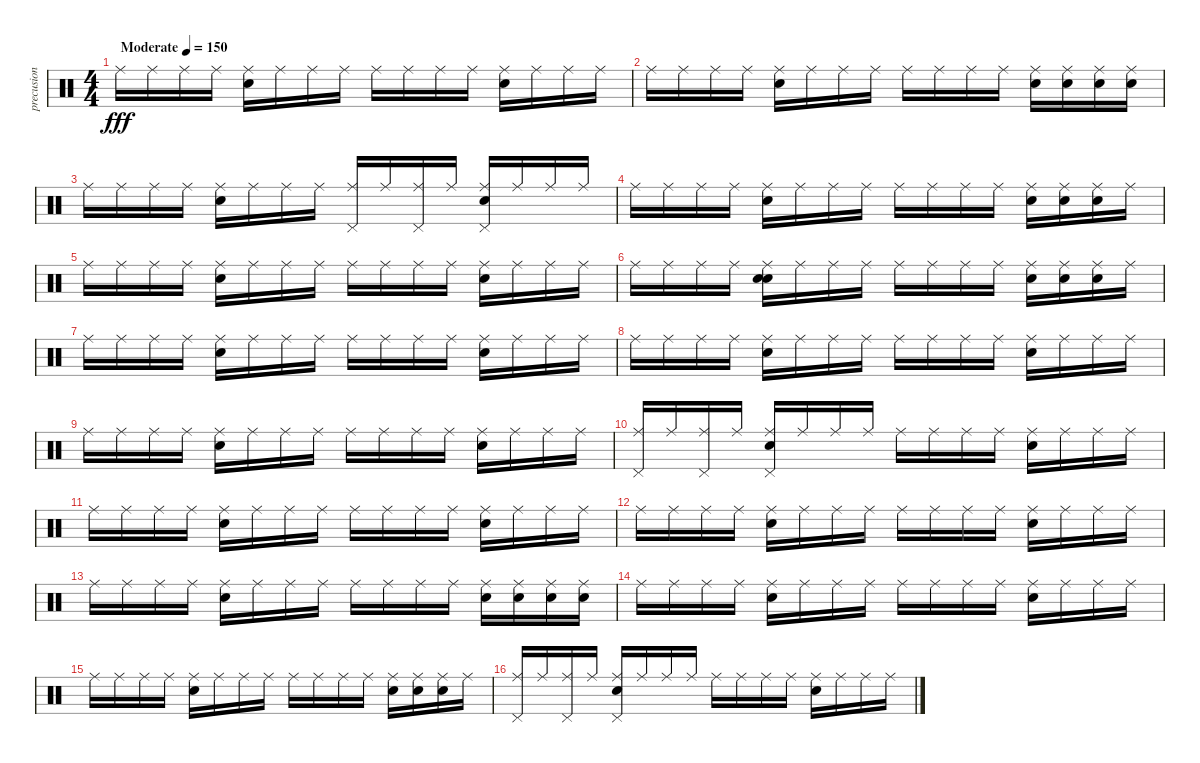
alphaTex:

\track ("precusion" "precusion") {instrument percussion}
\staff {score}
\articulation defaults
\ts (4 4)
\tempo (150 "Moderate")
\clef neutral
\ks c "Ride (middle)".16{dy fff} "Ride (middle)".16 "Ride (middle)".16 "Ride (middle)".16
("Ride (middle)" "Hand Clap (hit)").16 "Ride (middle)".16 "Ride (middle)".16 "Ride (middle)".16 "Ride (middle)".16 "Ride (middle)".16 "Ride (middle)".16 "Ride (middle)".16 ("Ride (middle)" "Hand Clap (hit)").16 "Ride (middle)".16 "Ride (middle)".16 "Ride (middle)".16 |
"Ride (middle)".16 "Ride (middle)".16 "Ride (middle)".16 "Ride (middle)".16 ("Ride (middle)" "Hand Clap (hit)").16 "Ride (middle)".16 "Ride (middle)".16 "Ride (middle)".16 "Ride (middle)".16 "Ride (middle)".16 "Ride (middle)".16 "Ride (middle)".16 ("Ride (middle)" "Hand Clap (hit)").16 ("Hand Clap (hit)" "Ride (middle)").16 ("Hand Clap (hit)" "Ride (middle)").16 ("Hand Clap (hit)" "Ride (middle)").16 |
"Ride (middle)".16 "Ride (middle)".16 "Ride (middle)".16 "Ride (middle)".16 ("Ride (middle)" "Hand Clap (hit)").16 "Ride (middle)".16 "Ride (middle)".16 "Ride (middle)".16 ("Pedal Hi-Hat (hit)" "Ride (middle)").16 "Ride (middle)".16 ("Pedal Hi-Hat (hit)" "Ride (middle)").16 "Ride (middle)".16 ("Pedal Hi-Hat (hit)" "Ride (middle)" "Hand Clap (hit)").16 "Ride (middle)".16 "Ride (middle)".16 "Ride (middle)".16 |
"Ride (middle)".16 "Ride (middle)".16 "Ride (middle)".16 "Ride (middle)".16 ("Ride (middle)" "Hand Clap (hit)").16 "Ride (middle)".16 "Ride (middle)".16 "Ride (middle)".16 "Ride (middle)".16 "Ride (middle)".16 "Ride (middle)".16 "Ride (middle)".16 ("Ride (middle)" "Hand Clap (hit)").16 ("Ride (middle)" "Hand Clap (hit)").16 ("Ride (middle)" "Hand Clap (hit)").16 "Ride (middle)".16 |
"Ride (middle)".16 "Ride (middle)".16 "Ride (middle)".16 "Ride (middle)".16 ("Ride (middle)" "Hand Clap (hit)").16 "Ride (middle)".16 "Ride (middle)".16 "Ride (middle)".16 "Ride (middle)".16 "Ride (middle)".16 "Ride (middle)".16 "Ride (middle)".16 ("Ride (middle)" "Hand Clap (hit)").16 "Ride (middle)".16 "Ride (middle)".16 "Ride (middle)".16 |
"Ride (middle)".16 "Ride (middle)".16 "Ride (middle)".16 "Ride (middle)".16 ("Ride (middle)" "Hand Clap (hit)" "Snare (hit) 2").16 "Ride (middle)".16 "Ride (middle)".16 "Ride (middle)".16 "Ride (middle)".16 "Ride (middle)".16 "Ride (middle)".16 "Ride (middle)".16 ("Ride (middle)" "Hand Clap (hit)").16 ("Ride (middle)" "Hand Clap (hit)").16 ("Ride (middle)" "Hand Clap (hit)").16 "Ride (middle)".16 |
"Ride (middle)".16 "Ride (middle)".16 "Ride (middle)".16 "Ride (middle)".16 ("Ride (middle)" "Hand Clap (hit)").16 "Ride (middle)".16 "Ride (middle)".16 "Ride (middle)".16 "Ride (middle)".16 "Ride (middle)".16 "Ride (middle)".16 "Ride (middle)".16 ("Ride (middle)" "Hand Clap (hit)").16 "Ride (middle)".16 "Ride (middle)".16 "Ride (middle)".16 |
"Ride (middle)".16 "Ride (middle)".16 "Ride (middle)".16 "Ride (middle)".16 ("Ride (middle)" "Hand Clap (hit)").16 "Ride (middle)".16 "Ride (middle)".16 "Ride (middle)".16 "Ride (middle)".16 "Ride (middle)".16 "Ride (middle)".16 "Ride (middle)".16 ("Ride (middle)" "Hand Clap (hit)").16 "Ride (middle)".16 "Ride (middle)".16 "Ride (middle)".16 |
"Ride (middle)".16 "Ride (middle)".16 "Ride (middle)".16 "Ride (middle)".16 ("Ride (middle)" "Hand Clap (hit)").16 "Ride (middle)".16 "Ride (middle)".16 "Ride (middle)".16 "Ride (middle)".16 "Ride (middle)".16 "Ride (middle)".16 "Ride (middle)".16 ("Ride (middle)" "Hand Clap (hit)").16 "Ride (middle)".16 "Ride (middle)".16 "Ride (middle)".16 |
("Ride (middle)" "Pedal Hi-Hat (hit)").16 "Ride (middle)".16 ("Ride (middle)" "Pedal Hi-Hat (hit)").16 "Ride (middle)".16 ("Pedal Hi-Hat (hit)" "Hand Clap (hit)" "Ride (middle)").16 "Ride (middle)".16 "Ride (middle)".16 "Ride (middle)".16 "Ride (middle)".16 "Ride (middle)".16 "Ride (middle)".16 "Ride (middle)".16 ("Ride (middle)" "Hand Clap (hit)").16 "Ride (middle)".16 "Ride (middle)".16 "Ride (middle)".16 |
"Ride (middle)".16 "Ride (middle)".16 "Ride (middle)".16 "Ride (middle)".16 ("Ride (middle)" "Hand Clap (hit)").16 "Ride (middle)".16 "Ride (middle)".16 "Ride (middle)".16 "Ride (middle)".16 "Ride (middle)".16 "Ride (middle)".16 "Ride (middle)".16 ("Ride (middle)" "Hand Clap (hit)").16 "Ride (middle)".16 "Ride (middle)".16 "Ride (middle)".16 |
"Ride (middle)".16 "Ride (middle)".16 "Ride (middle)".16 "Ride (middle)".16 ("Ride (middle)" "Hand Clap (hit)").16 "Ride (middle)".16 "Ride (middle)".16 "Ride (middle)".16 "Ride (middle)".16 "Ride (middle)".16 "Ride (middle)".16 "Ride (middle)".16 ("Ride (middle)" "Hand Clap (hit)").16 "Ride (middle)".16 "Ride (middle)".16 "Ride (middle)".16 |
"Ride (middle)".16 "Ride (middle)".16 "Ride (middle)".16 "Ride (middle)".16 ("Ride (middle)" "Hand Clap (hit)").16 "Ride (middle)".16 "Ride (middle)".16 "Ride (middle)".16 "Ride (middle)".16 "Ride (middle)".16 "Ride (middle)".16 "Ride (middle)".16 ("Ride (middle)" "Hand Clap (hit)").16 ("Ride (middle)" "Hand Clap (hit)").16 ("Ride (middle)" "Hand Clap (hit)").16 ("Ride (middle)" "Hand Clap (hit)").16 |
"Ride (middle)".16 "Ride (middle)".16 "Ride (middle)".16 "Ride (middle)".16 ("Ride (middle)" "Hand Clap (hit)").16 "Ride (middle)".16 "Ride (middle)".16 "Ride (middle)".16 "Ride (middle)".16 "Ride (middle)".16 "Ride (middle)".16 "Ride (middle)".16 ("Ride (middle)" "Hand Clap (hit)").16 "Ride (middle)".16 "Ride (middle)".16 "Ride (middle)".16 |
"Ride (middle)".16 "Ride (middle)".16 "Ride (middle)".16 "Ride (middle)".16 ("Ride (middle)" "Hand Clap (hit)").16 "Ride (middle)".16 "Ride (middle)".16 "Ride (middle)".16 "Ride (middle)".16 "Ride (middle)".16 "Ride (middle)".16 "Ride (middle)".16 ("Ride (middle)" "Hand Clap (hit)").16 ("Hand Clap (hit)" "Ride (middle)").16 ("Hand Clap (hit)" "Ride (middle)").16 "Ride (middle)".16 |
("Ride (middle)" "Pedal Hi-Hat (hit)").16 "Ride (middle)".16 ("Ride (middle)" "Pedal Hi-Hat (hit)").16 "Ride (middle)".16 ("Ride (middle)" "Hand Clap (hit)" "Pedal Hi-Hat (hit)").16 "Ride (middle)".16 "Ride (middle)".16 "Ride (middle)".16 "Ride (middle)".16 "Ride (middle)".16 "Ride (middle)".16 "Ride (middle)".16 ("Ride (middle)" "Hand Clap (hit)").16 "Ride (middle)".16 "Ride (middle)".16 "Ride (middle)".16
